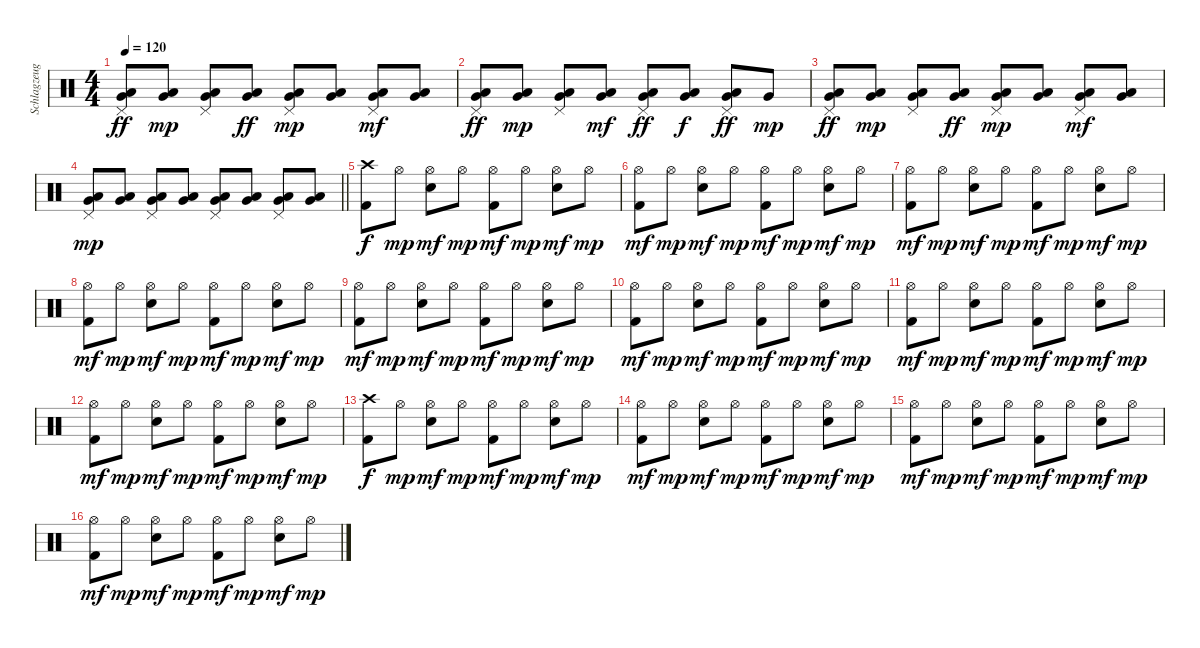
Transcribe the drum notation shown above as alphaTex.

\track ("Schlagzeug" "Schlagzeug") {instrument percussion}
\staff {score}
\articulation defaults
\ts (4 4)
\tempo 120
\clef neutral
\ks c
("Pedal Hi-Hat (hit)" "Very Low Tom (hit)" "Low Floor Tom (hit)").8{dy ff} ("Very Low Tom (hit)" "Low Floor Tom (hit)").8{dy mp} ("Pedal Hi-Hat (hit)" "Very Low Tom (hit)" "Low Floor Tom (hit)").8 ("Very Low Tom (hit)" "Low Floor Tom (hit)").8{dy ff} ("Pedal Hi-Hat (hit)" "Very Low Tom (hit)" "Low Floor Tom (hit)").8{dy mp} ("Very Low Tom (hit)" "Low Floor Tom (hit)").8 ("Pedal Hi-Hat (hit)" "Very Low Tom (hit)" "Low Floor Tom (hit)").8{dy mf} ("Very Low Tom (hit)" "Low Floor Tom (hit)").8 |
("Pedal Hi-Hat (hit)" "Very Low Tom (hit)" "Low Floor Tom (hit)").8{dy ff} ("Very Low Tom (hit)" "Low Floor Tom (hit)").8{dy mp} ("Pedal Hi-Hat (hit)" "Very Low Tom (hit)" "Low Floor Tom (hit)").8 ("Very Low Tom (hit)" "Low Floor Tom (hit)").8{dy mf} ("Pedal Hi-Hat (hit)" "Very Low Tom (hit)" "Low Floor Tom (hit)").8{dy ff} ("Very Low Tom (hit)" "Low Floor Tom (hit)").8{dy f} ("Pedal Hi-Hat (hit)" "Very Low Tom (hit)" "Low Floor Tom (hit)").8{dy ff} "Very Low Tom (hit)".8{dy mp} |
("Pedal Hi-Hat (hit)" "Very Low Tom (hit)" "Low Floor Tom (hit)").8{dy ff} ("Very Low Tom (hit)" "Low Floor Tom (hit)").8{dy mp} ("Pedal Hi-Hat (hit)" "Very Low Tom (hit)" "Low Floor Tom (hit)").8 ("Very Low Tom (hit)" "Low Floor Tom (hit)").8{dy ff} ("Pedal Hi-Hat (hit)" "Very Low Tom (hit)" "Low Floor Tom (hit)").8{dy mp} ("Very Low Tom (hit)" "Low Floor Tom (hit)").8 ("Pedal Hi-Hat (hit)" "Very Low Tom (hit)" "Low Floor Tom (hit)").8{dy mf} ("Very Low Tom (hit)" "Low Floor Tom (hit)").8 |
\barLineRight lightlight
("Pedal Hi-Hat (hit)" "Very Low Tom (hit)" "Low Floor Tom (hit)").8{dy mp} ("Very Low Tom (hit)" "Low Floor Tom (hit)").8 ("Pedal Hi-Hat (hit)" "Very Low Tom (hit)" "Low Floor Tom (hit)").8 ("Very Low Tom (hit)" "Low Floor Tom (hit)").8 ("Pedal Hi-Hat (hit)" "Very Low Tom (hit)" "Low Floor Tom (hit)").8 ("Very Low Tom (hit)" "Low Floor Tom (hit)").8 ("Pedal Hi-Hat (hit)" "Very Low Tom (hit)" "Low Floor Tom (hit)").8 ("Very Low Tom (hit)" "Low Floor Tom (hit)").8 |
("Crash high (hit)" "Kick (hit) 2").8{dy f} "Hi-Hat (open)".8{dy mp} ("Hi-Hat (open)" "Electric Snare (hit)").8{dy mf} "Hi-Hat (open)".8{dy mp} ("Hi-Hat (open)" "Kick (hit) 2").8{dy mf} "Hi-Hat (open)".8{dy mp} ("Hi-Hat (open)" "Electric Snare (hit)").8{dy mf} "Hi-Hat (open)".8{dy mp} |
("Hi-Hat (open)" "Kick (hit) 2").8{dy mf} "Hi-Hat (open)".8{dy mp} ("Hi-Hat (open)" "Electric Snare (hit)").8{dy mf} "Hi-Hat (open)".8{dy mp} ("Hi-Hat (open)" "Kick (hit) 2").8{dy mf} "Hi-Hat (open)".8{dy mp} ("Hi-Hat (open)" "Electric Snare (hit)").8{dy mf} "Hi-Hat (open)".8{dy mp} |
("Hi-Hat (open)" "Kick (hit) 2").8{dy mf} "Hi-Hat (open)".8{dy mp} ("Hi-Hat (open)" "Electric Snare (hit)").8{dy mf} "Hi-Hat (open)".8{dy mp} ("Hi-Hat (open)" "Kick (hit) 2").8{dy mf} "Hi-Hat (open)".8{dy mp} ("Hi-Hat (open)" "Electric Snare (hit)").8{dy mf} "Hi-Hat (open)".8{dy mp} |
("Hi-Hat (open)" "Kick (hit) 2").8{dy mf} "Hi-Hat (open)".8{dy mp} ("Hi-Hat (open)" "Electric Snare (hit)").8{dy mf} "Hi-Hat (open)".8{dy mp} ("Hi-Hat (open)" "Kick (hit) 2").8{dy mf} "Hi-Hat (open)".8{dy mp} ("Hi-Hat (open)" "Electric Snare (hit)").8{dy mf} "Hi-Hat (open)".8{dy mp} |
("Hi-Hat (open)" "Kick (hit) 2").8{dy mf} "Hi-Hat (open)".8{dy mp} ("Hi-Hat (open)" "Electric Snare (hit)").8{dy mf} "Hi-Hat (open)".8{dy mp} ("Hi-Hat (open)" "Kick (hit) 2").8{dy mf} "Hi-Hat (open)".8{dy mp} ("Hi-Hat (open)" "Electric Snare (hit)").8{dy mf} "Hi-Hat (open)".8{dy mp} |
("Hi-Hat (open)" "Kick (hit) 2").8{dy mf} "Hi-Hat (open)".8{dy mp} ("Hi-Hat (open)" "Electric Snare (hit)").8{dy mf} "Hi-Hat (open)".8{dy mp} ("Hi-Hat (open)" "Kick (hit) 2").8{dy mf} "Hi-Hat (open)".8{dy mp} ("Hi-Hat (open)" "Electric Snare (hit)").8{dy mf} "Hi-Hat (open)".8{dy mp} |
("Hi-Hat (open)" "Kick (hit) 2").8{dy mf} "Hi-Hat (open)".8{dy mp} ("Hi-Hat (open)" "Electric Snare (hit)").8{dy mf} "Hi-Hat (open)".8{dy mp} ("Hi-Hat (open)" "Kick (hit) 2").8{dy mf} "Hi-Hat (open)".8{dy mp} ("Hi-Hat (open)" "Electric Snare (hit)").8{dy mf} "Hi-Hat (open)".8{dy mp} |
("Hi-Hat (open)" "Kick (hit) 2").8{dy mf} "Hi-Hat (open)".8{dy mp} ("Hi-Hat (open)" "Electric Snare (hit)").8{dy mf} "Hi-Hat (open)".8{dy mp} ("Hi-Hat (open)" "Kick (hit) 2").8{dy mf} "Hi-Hat (open)".8{dy mp} ("Hi-Hat (open)" "Electric Snare (hit)").8{dy mf} "Hi-Hat (open)".8{dy mp} |
("Crash high (hit)" "Kick (hit) 2").8{dy f} "Hi-Hat (open)".8{dy mp} ("Hi-Hat (open)" "Electric Snare (hit)").8{dy mf} "Hi-Hat (open)".8{dy mp} ("Hi-Hat (open)" "Kick (hit) 2").8{dy mf} "Hi-Hat (open)".8{dy mp} ("Hi-Hat (open)" "Electric Snare (hit)").8{dy mf} "Hi-Hat (open)".8{dy mp} |
("Hi-Hat (open)" "Kick (hit) 2").8{dy mf} "Hi-Hat (open)".8{dy mp} ("Hi-Hat (open)" "Electric Snare (hit)").8{dy mf} "Hi-Hat (open)".8{dy mp} ("Hi-Hat (open)" "Kick (hit) 2").8{dy mf} "Hi-Hat (open)".8{dy mp} ("Hi-Hat (open)" "Electric Snare (hit)").8{dy mf} "Hi-Hat (open)".8{dy mp} |
("Hi-Hat (open)" "Kick (hit) 2").8{dy mf} "Hi-Hat (open)".8{dy mp} ("Hi-Hat (open)" "Electric Snare (hit)").8{dy mf} "Hi-Hat (open)".8{dy mp} ("Hi-Hat (open)" "Kick (hit) 2").8{dy mf} "Hi-Hat (open)".8{dy mp} ("Hi-Hat (open)" "Electric Snare (hit)").8{dy mf} "Hi-Hat (open)".8{dy mp} |
("Hi-Hat (open)" "Kick (hit) 2").8{dy mf} "Hi-Hat (open)".8{dy mp} ("Hi-Hat (open)" "Electric Snare (hit)").8{dy mf} "Hi-Hat (open)".8{dy mp} ("Hi-Hat (open)" "Kick (hit) 2").8{dy mf} "Hi-Hat (open)".8{dy mp} ("Hi-Hat (open)" "Electric Snare (hit)").8{dy mf} "Hi-Hat (open)".8{dy mp}
